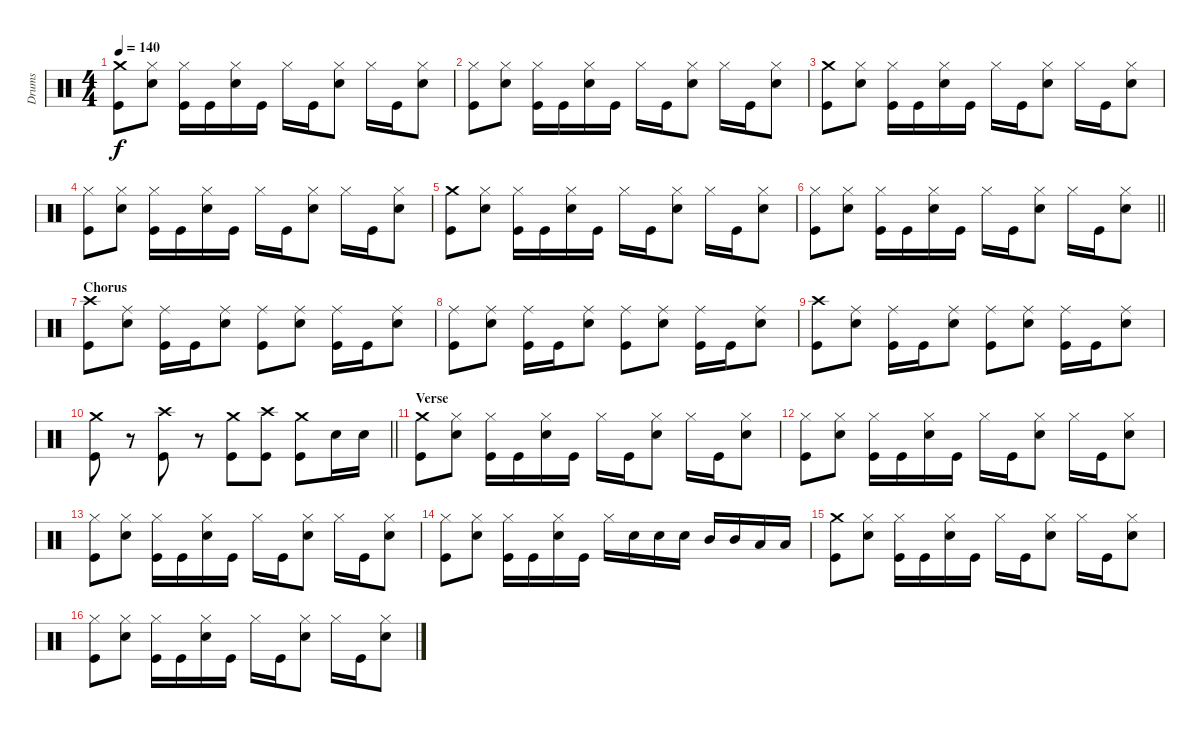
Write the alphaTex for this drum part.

\track ("Drums" "Drums") {instrument percussion}
\staff {score}
\articulation defaults
\ts (4 4)
\tempo 140
\clef neutral
\ks c
("Crash medium (hit)" "Kick (hit)").8{dy f} ("Hi-Hat (closed)" "Snare (hit) 2").8 ("Hi-Hat (closed)" "Kick (hit)").16 "Kick (hit)".16 ("Hi-Hat (closed)" "Snare (hit) 2").16 "Kick (hit)".16 "Hi-Hat (closed)".16 "Kick (hit)".16 ("Hi-Hat (closed)" "Snare (hit) 2").8 "Hi-Hat (closed)".16 "Kick (hit)".16 ("Hi-Hat (closed)" "Snare (hit) 2").8 |
("Hi-Hat (closed)" "Kick (hit)").8 ("Hi-Hat (closed)" "Snare (hit) 2").8 ("Hi-Hat (closed)" "Kick (hit)").16 "Kick (hit)".16 ("Hi-Hat (closed)" "Snare (hit) 2").16 "Kick (hit)".16 "Hi-Hat (closed)".16 "Kick (hit)".16 ("Hi-Hat (closed)" "Snare (hit) 2").8 "Hi-Hat (closed)".16 "Kick (hit)".16 ("Hi-Hat (closed)" "Snare (hit) 2").8 |
("Crash medium (hit)" "Kick (hit)").8 ("Hi-Hat (closed)" "Snare (hit) 2").8 ("Hi-Hat (closed)" "Kick (hit)").16 "Kick (hit)".16 ("Hi-Hat (closed)" "Snare (hit) 2").16 "Kick (hit)".16 "Hi-Hat (closed)".16 "Kick (hit)".16 ("Hi-Hat (closed)" "Snare (hit) 2").8 "Hi-Hat (closed)".16 "Kick (hit)".16 ("Hi-Hat (closed)" "Snare (hit) 2").8 |
("Hi-Hat (closed)" "Kick (hit)").8 ("Hi-Hat (closed)" "Snare (hit) 2").8 ("Hi-Hat (closed)" "Kick (hit)").16 "Kick (hit)".16 ("Hi-Hat (closed)" "Snare (hit) 2").16 "Kick (hit)".16 "Hi-Hat (closed)".16 "Kick (hit)".16 ("Hi-Hat (closed)" "Snare (hit) 2").8 "Hi-Hat (closed)".16 "Kick (hit)".16 ("Hi-Hat (closed)" "Snare (hit) 2").8 |
("Crash medium (hit)" "Kick (hit)").8 ("Hi-Hat (closed)" "Snare (hit) 2").8 ("Hi-Hat (closed)" "Kick (hit)").16 "Kick (hit)".16 ("Hi-Hat (closed)" "Snare (hit) 2").16 "Kick (hit)".16 "Hi-Hat (closed)".16 "Kick (hit)".16 ("Hi-Hat (closed)" "Snare (hit) 2").8 "Hi-Hat (closed)".16 "Kick (hit)".16 ("Hi-Hat (closed)" "Snare (hit) 2").8 |
\barLineRight lightlight
("Hi-Hat (closed)" "Kick (hit)").8 ("Hi-Hat (closed)" "Snare (hit) 2").8 ("Hi-Hat (closed)" "Kick (hit)").16 "Kick (hit)".16 ("Hi-Hat (closed)" "Snare (hit) 2").16 "Kick (hit)".16 "Hi-Hat (closed)".16 "Kick (hit)".16 ("Hi-Hat (closed)" "Snare (hit) 2").8 "Hi-Hat (closed)".16 "Kick (hit)".16 ("Hi-Hat (closed)" "Snare (hit) 2").8 |
\section ("" "Chorus")
("Crash high (hit)" "Kick (hit)").8 ("Ride (middle)" "Snare (hit) 2").8 ("Ride (middle)" "Kick (hit)").16 "Kick (hit)".16 ("Ride (middle)" "Snare (hit) 2").8 ("Ride (middle)" "Kick (hit)").8 ("Ride (middle)" "Snare (hit) 2").8 ("Ride (middle)" "Kick (hit)").16 "Kick (hit)".16 ("Ride (middle)" "Snare (hit) 2").8 |
("Ride (middle)" "Kick (hit)").8 ("Ride (middle)" "Snare (hit) 2").8 ("Ride (middle)" "Kick (hit)").16 "Kick (hit)".16 ("Ride (middle)" "Snare (hit) 2").8 ("Ride (middle)" "Kick (hit)").8 ("Ride (middle)" "Snare (hit) 2").8 ("Ride (middle)" "Kick (hit)").16 "Kick (hit)".16 ("Ride (middle)" "Snare (hit) 2").8 |
("Crash high (hit)" "Kick (hit)").8 ("Ride (middle)" "Snare (hit) 2").8 ("Ride (middle)" "Kick (hit)").16 "Kick (hit)".16 ("Ride (middle)" "Snare (hit) 2").8 ("Ride (middle)" "Kick (hit)").8 ("Ride (middle)" "Snare (hit) 2").8 ("Ride (middle)" "Kick (hit)").16 "Kick (hit)".16 ("Ride (middle)" "Snare (hit) 2").8 |
\barLineRight lightlight
("Crash medium (hit)" "Kick (hit)").8 r.8 ("Crash high (hit)" "Kick (hit)").8 r.8 ("Crash medium (hit)" "Kick (hit)").8 ("Crash high (hit)" "Kick (hit)").8 ("Crash medium (hit)" "Kick (hit)").8 "Snare (hit) 2".16 "Snare (hit) 2".16 |
\section ("" "Verse")
("Crash medium (hit)" "Kick (hit)").8 ("Hi-Hat (closed)" "Snare (hit) 2").8 ("Hi-Hat (closed)" "Kick (hit)").16 "Kick (hit)".16 ("Hi-Hat (closed)" "Snare (hit) 2").16 "Kick (hit)".16 "Hi-Hat (closed)".16 "Kick (hit)".16 ("Hi-Hat (closed)" "Snare (hit) 2").8 "Hi-Hat (closed)".16 "Kick (hit)".16 ("Hi-Hat (closed)" "Snare (hit) 2").8 |
("Hi-Hat (closed)" "Kick (hit)").8 ("Hi-Hat (closed)" "Snare (hit) 2").8 ("Hi-Hat (closed)" "Kick (hit)").16 "Kick (hit)".16 ("Hi-Hat (closed)" "Snare (hit) 2").16 "Kick (hit)".16 "Hi-Hat (closed)".16 "Kick (hit)".16 ("Hi-Hat (closed)" "Snare (hit) 2").8 "Hi-Hat (closed)".16 "Kick (hit)".16 ("Hi-Hat (closed)" "Snare (hit) 2").8 |
("Hi-Hat (closed)" "Kick (hit)").8 ("Hi-Hat (closed)" "Snare (hit) 2").8 ("Hi-Hat (closed)" "Kick (hit)").16 "Kick (hit)".16 ("Hi-Hat (closed)" "Snare (hit) 2").16 "Kick (hit)".16 "Hi-Hat (closed)".16 "Kick (hit)".16 ("Hi-Hat (closed)" "Snare (hit) 2").8 "Hi-Hat (closed)".16 "Kick (hit)".16 ("Hi-Hat (closed)" "Snare (hit) 2").8 |
("Hi-Hat (closed)" "Kick (hit)").8 ("Hi-Hat (closed)" "Snare (hit) 2").8 ("Hi-Hat (closed)" "Kick (hit)").16 "Kick (hit)".16 ("Hi-Hat (closed)" "Snare (hit) 2").16 "Kick (hit)".16 "Hi-Hat (closed)".16 "Snare (hit) 2".16 "Snare (hit) 2".16 "Snare (hit) 2".16 "Mid Tom (hit)".16 "Mid Tom (hit)".16 "Low Tom (hit)".16 "Low Tom (hit)".16 |
("Crash medium (hit)" "Kick (hit)").8 ("Hi-Hat (closed)" "Snare (hit) 2").8 ("Hi-Hat (closed)" "Kick (hit)").16 "Kick (hit)".16 ("Hi-Hat (closed)" "Snare (hit) 2").16 "Kick (hit)".16 "Hi-Hat (closed)".16 "Kick (hit)".16 ("Hi-Hat (closed)" "Snare (hit) 2").8 "Hi-Hat (closed)".16 "Kick (hit)".16 ("Hi-Hat (closed)" "Snare (hit) 2").8 |
("Hi-Hat (closed)" "Kick (hit)").8 ("Hi-Hat (closed)" "Snare (hit) 2").8 ("Hi-Hat (closed)" "Kick (hit)").16 "Kick (hit)".16 ("Hi-Hat (closed)" "Snare (hit) 2").16 "Kick (hit)".16 "Hi-Hat (closed)".16 "Kick (hit)".16 ("Hi-Hat (closed)" "Snare (hit) 2").8 "Hi-Hat (closed)".16 "Kick (hit)".16 ("Hi-Hat (closed)" "Snare (hit) 2").8
